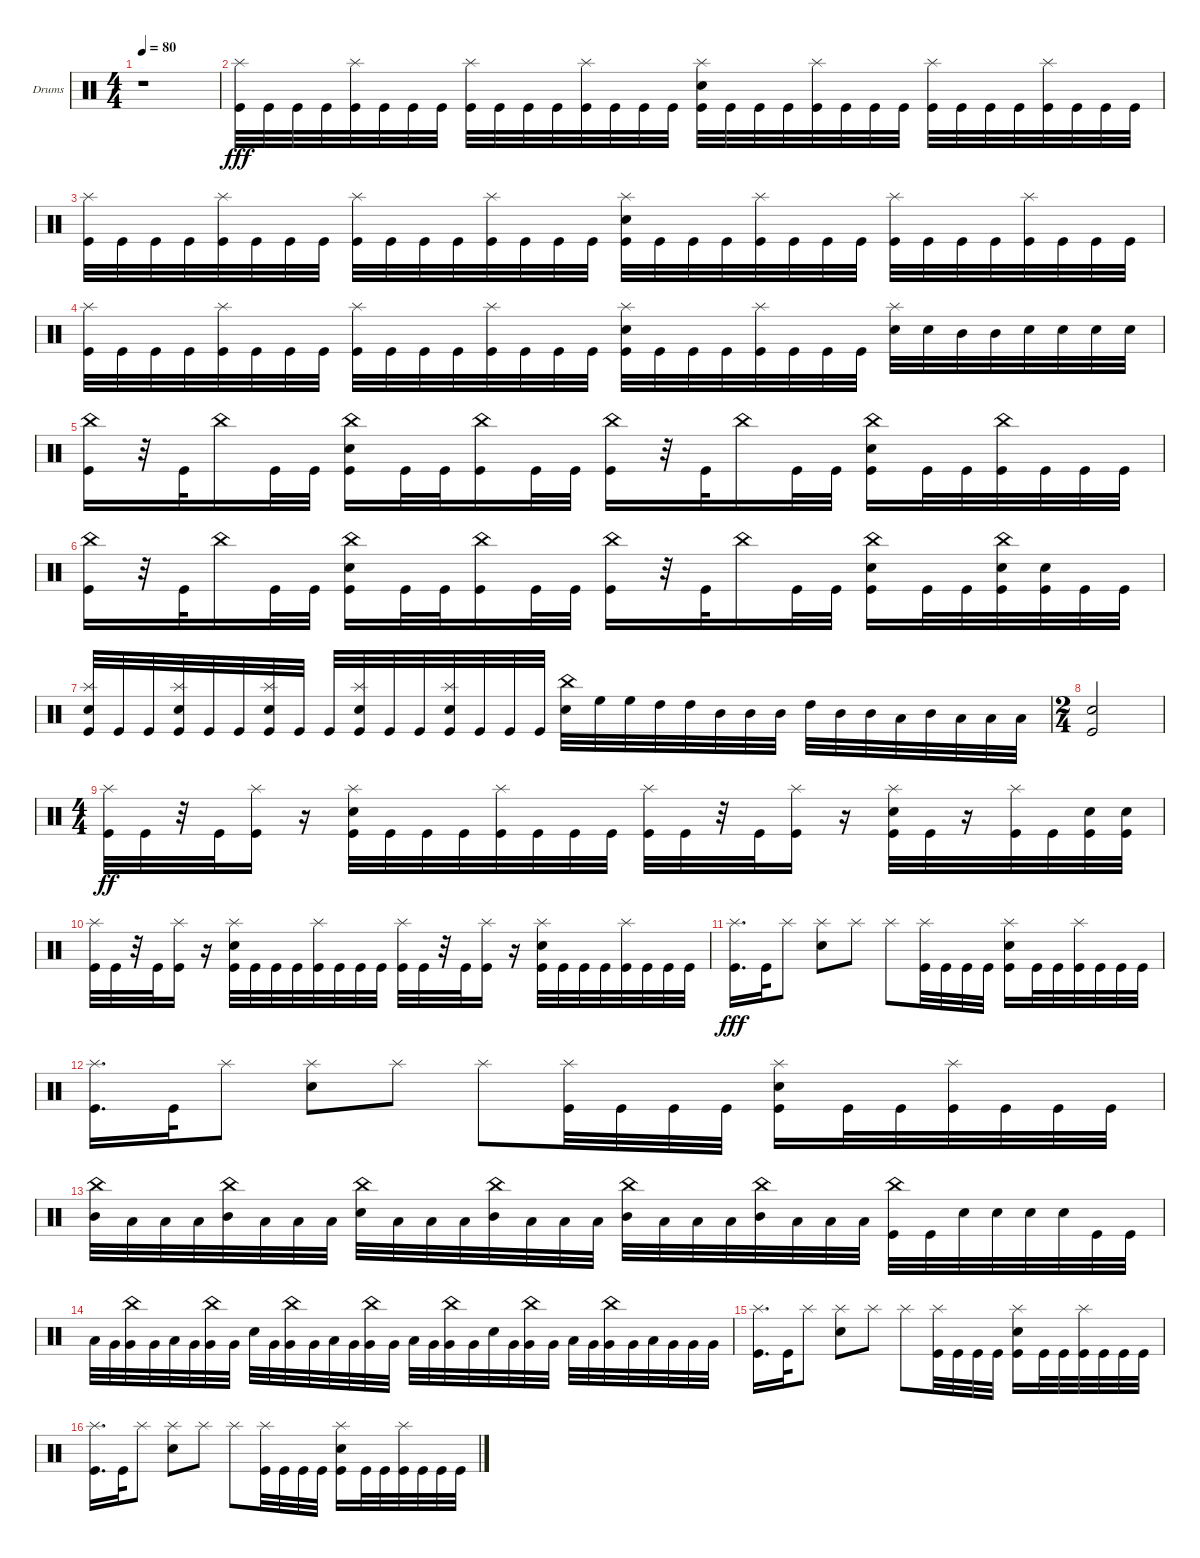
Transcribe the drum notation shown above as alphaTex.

\defaultSystemsLayout 4
\bracketExtendMode groupsimilarinstruments
\firstSystemTrackNameOrientation horizontal
\otherSystemsTrackNameOrientation horizontal
\track ("Drumkit" "Drums") {instrument percussion}
\staff {score}
\articulation defaults
\ts (4 4)
\tempo 80
\clef neutral
\scale
0.472222
\ks c
r.1{dy fff} |
\scale
0.263889 ("Kick (hit)" "Splash (hit)").32 "Kick (hit)".32 "Kick (hit)".32 "Kick (hit)".32 ("Kick (hit)" "Splash (hit)").32 "Kick (hit)".32 "Kick (hit)".32 "Kick (hit)".32 ("Kick (hit)" "Splash (hit)").32 "Kick (hit)".32 "Kick (hit)".32 "Kick (hit)".32 ("Kick (hit)" "Splash (hit)").32 "Kick (hit)".32 "Kick (hit)".32 "Kick (hit)".32 ("Kick (hit)" "Splash (hit)" "Snare (hit) 2").32 "Kick (hit)".32 "Kick (hit)".32 "Kick (hit)".32 ("Kick (hit)" "Splash (hit)").32 "Kick (hit)".32 "Kick (hit)".32 "Kick (hit)".32 ("Kick (hit)" "Splash (hit)").32 "Kick (hit)".32 "Kick (hit)".32 "Kick (hit)".32 ("Kick (hit)" "Splash (hit)").32 "Kick (hit)".32 "Kick (hit)".32 "Kick (hit)".32 |
\scale
0.263889 ("Kick (hit)" "Splash (hit)").32 "Kick (hit)".32 "Kick (hit)".32 "Kick (hit)".32 ("Kick (hit)" "Splash (hit)").32 "Kick (hit)".32 "Kick (hit)".32 "Kick (hit)".32 ("Kick (hit)" "Splash (hit)").32 "Kick (hit)".32 "Kick (hit)".32 "Kick (hit)".32 ("Kick (hit)" "Splash (hit)").32 "Kick (hit)".32 "Kick (hit)".32 "Kick (hit)".32 ("Kick (hit)" "Splash (hit)" "Snare (hit) 2").32 "Kick (hit)".32 "Kick (hit)".32 "Kick (hit)".32 ("Kick (hit)" "Splash (hit)").32 "Kick (hit)".32 "Kick (hit)".32 "Kick (hit)".32 ("Kick (hit)" "Splash (hit)").32 "Kick (hit)".32 "Kick (hit)".32 "Kick (hit)".32 ("Kick (hit)" "Splash (hit)").32 "Kick (hit)".32 "Kick (hit)".32 "Kick (hit)".32 |
("Kick (hit)" "Splash (hit)").32 "Kick (hit)".32 "Kick (hit)".32 "Kick (hit)".32 ("Kick (hit)" "Splash (hit)").32 "Kick (hit)".32 "Kick (hit)".32 "Kick (hit)".32 ("Kick (hit)" "Splash (hit)").32 "Kick (hit)".32 "Kick (hit)".32 "Kick (hit)".32 ("Kick (hit)" "Splash (hit)").32 "Kick (hit)".32 "Kick (hit)".32 "Kick (hit)".32 ("Kick (hit)" "Splash (hit)" "Snare (hit) 2").32 "Kick (hit)".32 "Kick (hit)".32 "Kick (hit)".32 ("Kick (hit)" "Splash (hit)").32 "Kick (hit)".32 "Kick (hit)".32 "Kick (hit)".32 ("Splash (hit)" "Snare (hit) 2").32 "Snare (hit) 2".32 "Mid Tom (hit)".32 "Mid Tom (hit)".32 "Snare (hit) 2".32 "Snare (hit) 2".32 "Snare (hit) 2".32 "Snare (hit) 2".32 |
("Kick (hit)" "China (hit)").16 r.32 "Kick (hit)".32 "China (hit)".16 "Kick (hit)".32 "Kick (hit)".32 ("Kick (hit)" "China (hit)" "Snare (hit) 2").16 "Kick (hit)".32 "Kick (hit)".32 ("Kick (hit)" "China (hit)").16 "Kick (hit)".32 "Kick (hit)".32 ("Kick (hit)" "China (hit)").16 r.32 "Kick (hit)".32 "China (hit)".16 "Kick (hit)".32 "Kick (hit)".32 ("Kick (hit)" "China (hit)" "Snare (hit) 2").16 "Kick (hit)".32 "Kick (hit)".32 ("Kick (hit)" "China (hit)").32 "Kick (hit)".32 "Kick (hit)".32 "Kick (hit)".32 |
("Kick (hit)" "China (hit)").16 r.32 "Kick (hit)".32 "China (hit)".16 "Kick (hit)".32 "Kick (hit)".32 ("Kick (hit)" "China (hit)" "Snare (hit) 2").16 "Kick (hit)".32 "Kick (hit)".32 ("Kick (hit)" "China (hit)").16 "Kick (hit)".32 "Kick (hit)".32 ("Kick (hit)" "China (hit)").16 r.32 "Kick (hit)".32 "China (hit)".16 "Kick (hit)".32 "Kick (hit)".32 ("Kick (hit)" "China (hit)" "Snare (hit) 2").16 "Kick (hit)".32 "Kick (hit)".32 ("Kick (hit)" "China (hit)" "Snare (hit) 2").32 ("Kick (hit)" "Snare (hit) 2").32 "Kick (hit)".32 "Kick (hit)".32 |
("Kick (hit)" "Snare (hit) 2" "Splash (hit)").32 "Kick (hit)".32 "Kick (hit)".32 ("Kick (hit)" "Snare (hit) 2" "Splash (hit)").32 "Kick (hit)".32 "Kick (hit)".32 ("Kick (hit)" "Snare (hit) 2" "Splash (hit)").32 "Kick (hit)".32 "Kick (hit)".32 ("Kick (hit)" "Snare (hit) 2" "Splash (hit)").32 "Kick (hit)".32 "Kick (hit)".32 ("Kick (hit)" "Snare (hit) 2" "Splash (hit)").32 "Kick (hit)".32 "Kick (hit)".32 "Kick (hit)".32 ("Snare (hit) 2" "China (hit)").32 "High Floor Tom (hit)".32 "High Floor Tom (hit)".32 "High Tom (hit)".32 "High Tom (hit)".32 "Mid Tom (hit)".32 "Mid Tom (hit)".32 "Mid Tom (hit)".32 "High Tom (hit)".32 "Mid Tom (hit)".32 "Mid Tom (hit)".32 "Low Tom (hit)".32 "Mid Tom (hit)".32 "Low Tom (hit)".32 "Low Tom (hit)".32 "Low Tom (hit)".32 |
\ts (2 4)
("Kick (hit)" "Snare (hit) 2").2 |
\ts (4 4)
("Kick (hit)" "Splash (hit)").32{dy ff} "Kick (hit)".32 r.32 "Kick (hit)".32 ("Kick (hit)" "Splash (hit)").16 r.16 ("Kick (hit)" "Snare (hit) 2" "Splash (hit)").32 "Kick (hit)".32 "Kick (hit)".32 "Kick (hit)".32 ("Kick (hit)" "Splash (hit)").32 "Kick (hit)".32 "Kick (hit)".32 "Kick (hit)".32 ("Kick (hit)" "Splash (hit)").32 "Kick (hit)".32 r.32 "Kick (hit)".32 ("Kick (hit)" "Splash (hit)").16 r.16 ("Kick (hit)" "Snare (hit) 2" "Splash (hit)").32 "Kick (hit)".32 r.16 ("Kick (hit)" "Splash (hit)").32 "Kick (hit)".32 ("Kick (hit)" "Snare (hit) 2").32 ("Kick (hit)" "Snare (hit) 2").32 |
("Kick (hit)" "Splash (hit)").32 "Kick (hit)".32 r.32 "Kick (hit)".32 ("Kick (hit)" "Splash (hit)").16 r.16 ("Kick (hit)" "Snare (hit) 2" "Splash (hit)").32 "Kick (hit)".32 "Kick (hit)".32 "Kick (hit)".32 ("Kick (hit)" "Splash (hit)").32 "Kick (hit)".32 "Kick (hit)".32 "Kick (hit)".32 ("Kick (hit)" "Splash (hit)").32 "Kick (hit)".32 r.32 "Kick (hit)".32 ("Kick (hit)" "Splash (hit)").16 r.16 ("Kick (hit)" "Snare (hit) 2" "Splash (hit)").32 "Kick (hit)".32 "Kick (hit)".32 "Kick (hit)".32 ("Kick (hit)" "Splash (hit)").32 "Kick (hit)".32 "Kick (hit)".32 "Kick (hit)".32 |
("Kick (hit)" "Splash (hit)").16{d dy fff} "Kick (hit)".32 "Splash (hit)".8 ("Splash (hit)" "Snare (hit) 2").8 "Splash (hit)".8 "Splash (hit)".8 ("Kick (hit)" "Splash (hit)").32 "Kick (hit)".32 "Kick (hit)".32 "Kick (hit)".32 ("Kick (hit)" "Splash (hit)" "Snare (hit) 2").16 "Kick (hit)".32 "Kick (hit)".32 ("Kick (hit)" "Splash (hit)").32 "Kick (hit)".32 "Kick (hit)".32 "Kick (hit)".32 |
("Kick (hit)" "Splash (hit)").16{d} "Kick (hit)".32 "Splash (hit)".8 ("Splash (hit)" "Snare (hit) 2").8 "Splash (hit)".8 "Splash (hit)".8 ("Kick (hit)" "Splash (hit)").32 "Kick (hit)".32 "Kick (hit)".32 "Kick (hit)".32 ("Kick (hit)" "Splash (hit)" "Snare (hit) 2").16 "Kick (hit)".32 "Kick (hit)".32 ("Kick (hit)" "Splash (hit)").32 "Kick (hit)".32 "Kick (hit)".32 "Kick (hit)".32 |
("China (hit)" "Mid Tom (hit)").32 "Low Tom (hit)".32 "Low Tom (hit)".32 "Low Tom (hit)".32 ("China (hit)" "Mid Tom (hit)").32 "Low Tom (hit)".32 "Low Tom (hit)".32 "Low Tom (hit)".32 ("China (hit)" "Snare (hit) 2").32 "Low Tom (hit)".32 "Low Tom (hit)".32 "Low Tom (hit)".32 ("China (hit)" "Mid Tom (hit)").32 "Low Tom (hit)".32 "Low Tom (hit)".32 "Low Tom (hit)".32 ("China (hit)" "Mid Tom (hit)").32 "Low Tom (hit)".32 "Low Tom (hit)".32 "Low Tom (hit)".32 ("China (hit)" "Mid Tom (hit)").32 "Low Tom (hit)".32 "Low Tom (hit)".32 "Low Tom (hit)".32 ("China (hit)" "Kick (hit)").32 "Kick (hit)".32 "Snare (hit) 2".32 "Snare (hit) 2".32 "Snare (hit) 2".32 "Snare (hit) 2".32 "Kick (hit)".32 "Kick (hit)".32 |
"Low Tom (hit)".32 "Very Low Tom (hit)".32 ("Very Low Tom (hit)" "China (hit)").32 "Very Low Tom (hit)".32 "Low Tom (hit)".32 "Very Low Tom (hit)".32 ("Very Low Tom (hit)" "China (hit)").32 "Very Low Tom (hit)".32 "Snare (hit) 2".32 "Very Low Tom (hit)".32 ("Very Low Tom (hit)" "China (hit)").32 "Very Low Tom (hit)".32 "Low Tom (hit)".32 "Very Low Tom (hit)".32 ("Very Low Tom (hit)" "China (hit)").32 "Very Low Tom (hit)".32 "Low Tom (hit)".32 "Very Low Tom (hit)".32 ("Very Low Tom (hit)" "China (hit)").32 "Very Low Tom (hit)".32 "Snare (hit) 2".32 "Very Low Tom (hit)".32 ("Very Low Tom (hit)" "China (hit)").32 "Very Low Tom (hit)".32 "Low Tom (hit)".32 "Very Low Tom (hit)".32 ("Very Low Tom (hit)" "China (hit)").32 "Very Low Tom (hit)".32 "Low Tom (hit)".32 "Very Low Tom (hit)".32 "Very Low Tom (hit)".32 "Very Low Tom (hit)".32 |
("Kick (hit)" "Splash (hit)").16{d} "Kick (hit)".32 "Splash (hit)".8 ("Splash (hit)" "Snare (hit) 2").8 "Splash (hit)".8 "Splash (hit)".8 ("Kick (hit)" "Splash (hit)").32 "Kick (hit)".32 "Kick (hit)".32 "Kick (hit)".32 ("Kick (hit)" "Splash (hit)" "Snare (hit) 2").16 "Kick (hit)".32 "Kick (hit)".32 ("Kick (hit)" "Splash (hit)").32 "Kick (hit)".32 "Kick (hit)".32 "Kick (hit)".32 |
("Kick (hit)" "Splash (hit)").16{d} "Kick (hit)".32 "Splash (hit)".8 ("Splash (hit)" "Snare (hit) 2").8 "Splash (hit)".8 "Splash (hit)".8 ("Kick (hit)" "Splash (hit)").32 "Kick (hit)".32 "Kick (hit)".32 "Kick (hit)".32 ("Kick (hit)" "Splash (hit)" "Snare (hit) 2").16 "Kick (hit)".32 "Kick (hit)".32 ("Kick (hit)" "Splash (hit)").32 "Kick (hit)".32 "Kick (hit)".32 "Kick (hit)".32
